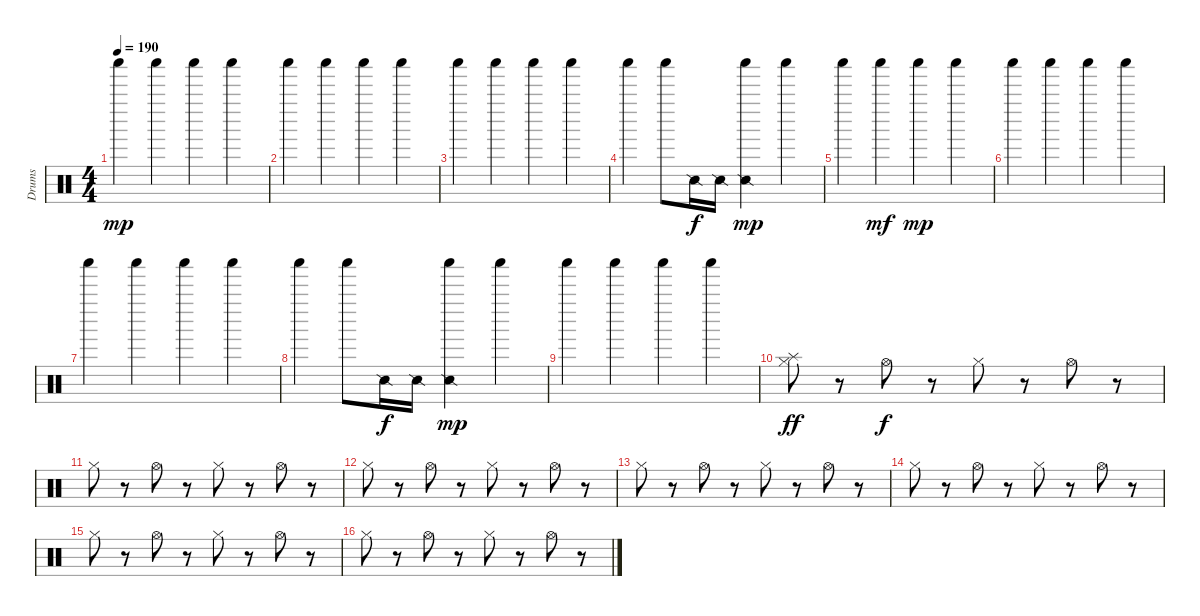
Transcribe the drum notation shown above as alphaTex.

\track ("Drums" "Drums") {instrument percussion}
\staff {score}
\articulation defaults
\ts (4 4)
\tempo 190
\clef neutral
\ks c "Shaker (hit)".4{dy mp} "Shaker (hit)".4 "Shaker (hit)".4 "Shaker (hit)".4
|
"Shaker (hit)".4 "Shaker (hit)".4 "Shaker (hit)".4 "Shaker (hit)".4 |
"Shaker (hit)".4 "Shaker (hit)".4 "Shaker (hit)".4 "Shaker (hit)".4 |
"Shaker (hit)".4 "Shaker (hit)".8 "Snare (side stick) 2".16{dy f} "Snare (side stick) 2".16 ("Shaker (hit)" "Snare (side stick) 2").4{dy mp} "Shaker (hit)".4 |
"Shaker (hit)".4 "Shaker (hit)".4{dy mf} "Shaker (hit)".4{dy mp} "Shaker (hit)".4 |
"Shaker (hit)".4 "Shaker (hit)".4 "Shaker (hit)".4 "Shaker (hit)".4 |
"Shaker (hit)".4 "Shaker (hit)".4 "Shaker (hit)".4 "Shaker (hit)".4 |
"Shaker (hit)".4 "Shaker (hit)".8 "Snare (side stick) 2".16{dy f} "Snare (side stick) 2".16 ("Shaker (hit)" "Snare (side stick) 2").4{dy mp} "Shaker (hit)".4 |
"Shaker (hit)".4 "Shaker (hit)".4 "Shaker (hit)".4 "Shaker (hit)".4 |
("Splash (hit)" "Hi-Hat (closed)").8{dy ff} r.8 "Hi-Hat (open)".8{dy f} r.8 "Hi-Hat (closed)".8 r.8 "Hi-Hat (open)".8 r.8 |
"Hi-Hat (closed)".8 r.8 "Hi-Hat (open)".8 r.8 "Hi-Hat (closed)".8 r.8 "Hi-Hat (open)".8 r.8 |
"Hi-Hat (closed)".8 r.8 "Hi-Hat (open)".8 r.8 "Hi-Hat (closed)".8 r.8 "Hi-Hat (open)".8 r.8 |
"Hi-Hat (closed)".8 r.8 "Hi-Hat (open)".8 r.8 "Hi-Hat (closed)".8 r.8 "Hi-Hat (open)".8 r.8 |
"Hi-Hat (closed)".8 r.8 "Hi-Hat (open)".8 r.8 "Hi-Hat (closed)".8 r.8 "Hi-Hat (open)".8 r.8 |
"Hi-Hat (closed)".8 r.8 "Hi-Hat (open)".8 r.8 "Hi-Hat (closed)".8 r.8 "Hi-Hat (open)".8 r.8 |
"Hi-Hat (closed)".8 r.8 "Hi-Hat (open)".8 r.8 "Hi-Hat (closed)".8 r.8 "Hi-Hat (open)".8 r.8
